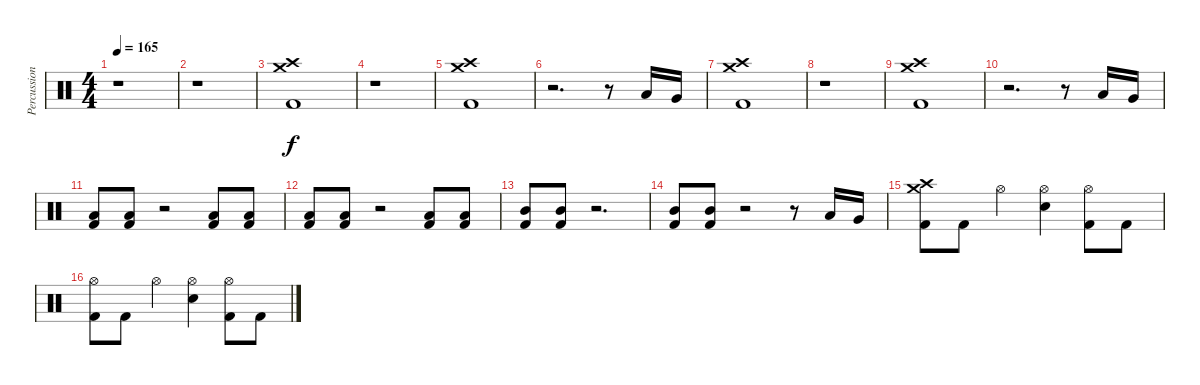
\track ("Percussion" "Percussion") {instrument percussion}
\staff {score}
\articulation defaults
\ts (4 4)
\tempo 165
\clef neutral
\ks c
r.1{dy f} |
r.1 |
("Crash medium (hit)" "Crash high (hit)" "Kick (hit) 2").1 |
r.1 |
("Crash medium (hit)" "Crash high (hit)" "Kick (hit) 2").1 |
r.2{d} r.8 "Low Tom (hit)".16 "Very Low Tom (hit)".16 |
("Crash medium (hit)" "Crash high (hit)" "Kick (hit) 2").1 |
r.1 |
("Crash medium (hit)" "Crash high (hit)" "Kick (hit) 2").1 |
r.2{d} r.8 "Low Tom (hit)".16 "Very Low Tom (hit)".16 |
("Low Tom (hit)" "Kick (hit) 2").8 ("Low Tom (hit)" "Kick (hit) 2").8 r.2 ("Low Tom (hit)" "Kick (hit) 2").8 ("Low Tom (hit)" "Kick (hit) 2").8 |
("Low Tom (hit)" "Kick (hit) 2").8 ("Low Tom (hit)" "Kick (hit) 2").8 r.2 ("Low Tom (hit)" "Kick (hit) 2").8 ("Low Tom (hit)" "Kick (hit) 2").8 |
("Mid Tom (hit)" "Kick (hit) 2").8 ("Mid Tom (hit)" "Kick (hit) 2").8 r.2{d} |
("Mid Tom (hit)" "Kick (hit) 2").8 ("Mid Tom (hit)" "Kick (hit) 2").8 r.2 r.8 "Low Tom (hit)".16 "Very Low Tom (hit)".16 |
("Crash high (hit)" "Crash medium (hit)" "Kick (hit) 2").8 "Kick (hit) 2".8 "Hi-Hat (open)".4 ("Hi-Hat (open)" "Snare (hit) 2").4 ("Hi-Hat (open)" "Kick (hit) 2").8 "Kick (hit) 2".8 |
("Hi-Hat (open)" "Kick (hit) 2").8 "Kick (hit) 2".8 "Hi-Hat (open)".4 ("Hi-Hat (open)" "Snare (hit) 2").4 ("Hi-Hat (open)" "Kick (hit) 2").8 "Kick (hit) 2".8
